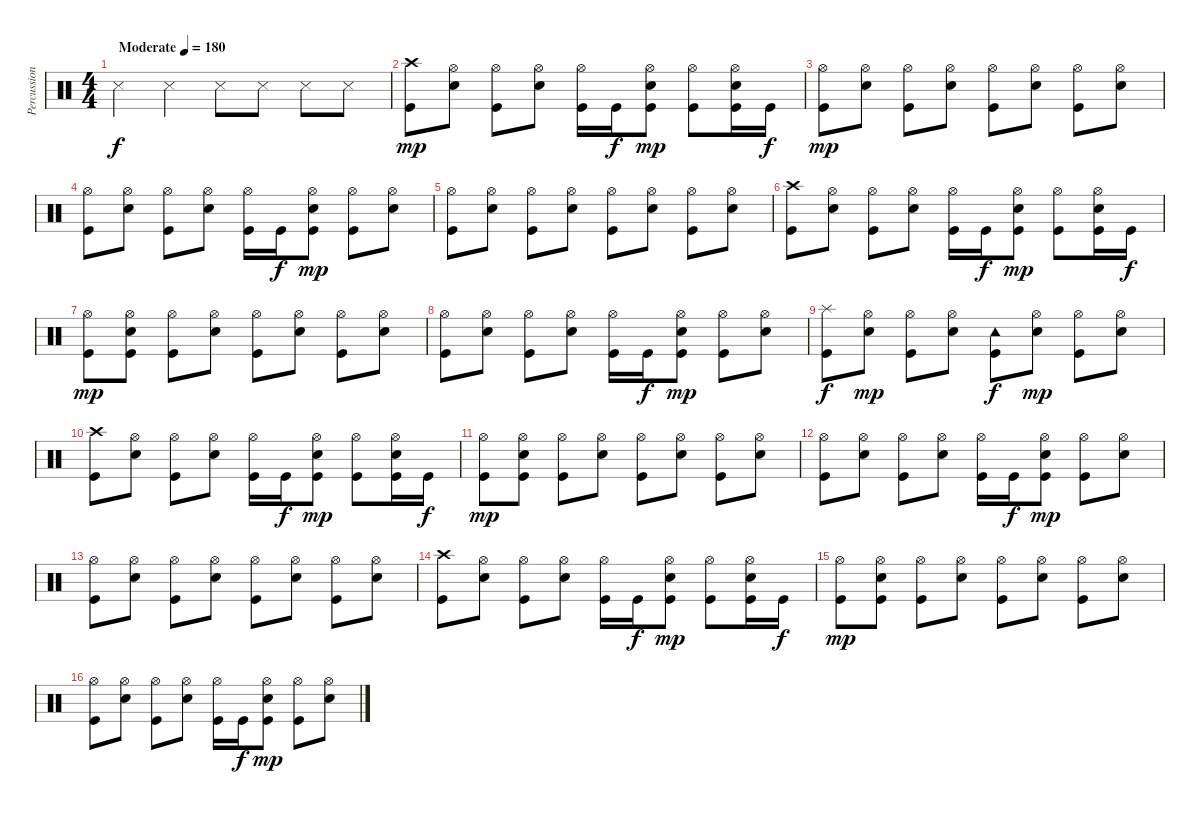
\track ("Percussion" "Percussion") {instrument percussion}
\staff {score}
\articulation defaults
\ts (4 4)
\tempo (180 "Moderate")
\clef neutral
\ks c "Metronome (hit)".4{dy f} "Metronome (hit)".4 "Metronome (hit)".8 "Metronome (hit)".8 "Metronome (hit)".8 "Metronome (hit)".8
|
("Crash high (hit)" "Kick (hit)").8{dy mp} ("Hi-Hat (open)" "Electric Snare (hit)").8 ("Hi-Hat (open)" "Kick (hit)").8 ("Hi-Hat (open)" "Electric Snare (hit)").8 ("Hi-Hat (open)" "Kick (hit)").16 "Kick (hit)".16{dy f} ("Hi-Hat (open)" "Electric Snare (hit)" "Kick (hit)").8{dy mp} ("Hi-Hat (open)" "Kick (hit)").8 ("Hi-Hat (open)" "Electric Snare (hit)" "Kick (hit)").16 "Kick (hit)".16{dy f} |
("Hi-Hat (open)" "Kick (hit)").8{dy mp} ("Hi-Hat (open)" "Electric Snare (hit)").8 ("Hi-Hat (open)" "Kick (hit)").8 ("Hi-Hat (open)" "Electric Snare (hit)").8 ("Hi-Hat (open)" "Kick (hit)").8 ("Hi-Hat (open)" "Electric Snare (hit)").8 ("Hi-Hat (open)" "Kick (hit)").8 ("Hi-Hat (open)" "Electric Snare (hit)").8 |
("Hi-Hat (open)" "Kick (hit)").8 ("Hi-Hat (open)" "Electric Snare (hit)").8 ("Hi-Hat (open)" "Kick (hit)").8 ("Hi-Hat (open)" "Electric Snare (hit)").8 ("Hi-Hat (open)" "Kick (hit)").16 "Kick (hit)".16{dy f} ("Hi-Hat (open)" "Electric Snare (hit)" "Kick (hit)").8{dy mp} ("Hi-Hat (open)" "Kick (hit)").8 ("Hi-Hat (open)" "Electric Snare (hit)").8 |
("Hi-Hat (open)" "Kick (hit)").8 ("Hi-Hat (open)" "Electric Snare (hit)").8 ("Hi-Hat (open)" "Kick (hit)").8 ("Hi-Hat (open)" "Electric Snare (hit)").8 ("Hi-Hat (open)" "Kick (hit)").8 ("Hi-Hat (open)" "Electric Snare (hit)").8 ("Hi-Hat (open)" "Kick (hit)").8 ("Hi-Hat (open)" "Electric Snare (hit)").8 |
("Crash high (hit)" "Kick (hit)").8 ("Hi-Hat (open)" "Electric Snare (hit)").8 ("Hi-Hat (open)" "Kick (hit)").8 ("Hi-Hat (open)" "Electric Snare (hit)").8 ("Hi-Hat (open)" "Kick (hit)").16 "Kick (hit)".16{dy f} ("Hi-Hat (open)" "Electric Snare (hit)" "Kick (hit)").8{dy mp} ("Hi-Hat (open)" "Kick (hit)").8 ("Hi-Hat (open)" "Electric Snare (hit)" "Kick (hit)").16 "Kick (hit)".16{dy f} |
("Hi-Hat (open)" "Kick (hit)").8{dy mp} ("Hi-Hat (open)" "Electric Snare (hit)" "Kick (hit)").8 ("Hi-Hat (open)" "Kick (hit)").8 ("Hi-Hat (open)" "Electric Snare (hit)").8 ("Hi-Hat (open)" "Kick (hit)").8 ("Hi-Hat (open)" "Electric Snare (hit)").8 ("Hi-Hat (open)" "Kick (hit)").8 ("Hi-Hat (open)" "Electric Snare (hit)").8 |
("Hi-Hat (open)" "Kick (hit)").8 ("Hi-Hat (open)" "Electric Snare (hit)").8 ("Hi-Hat (open)" "Kick (hit)").8 ("Hi-Hat (open)" "Electric Snare (hit)").8 ("Hi-Hat (open)" "Kick (hit)").16 "Kick (hit)".16{dy f} ("Hi-Hat (open)" "Electric Snare (hit)" "Kick (hit)").8{dy mp} ("Hi-Hat (open)" "Kick (hit)").8 ("Hi-Hat (open)" "Electric Snare (hit)").8 |
("Splash (hit)" "Kick (hit)").8{dy f} ("Hi-Hat (open)" "Electric Snare (hit)").8{dy mp} ("Hi-Hat (open)" "Kick (hit)").8 ("Hi-Hat (open)" "Electric Snare (hit)").8 ("Tambourine (hit)" "Kick (hit)").8{dy f} ("Hi-Hat (open)" "Electric Snare (hit)").8{dy mp} ("Hi-Hat (open)" "Kick (hit)").8 ("Hi-Hat (open)" "Electric Snare (hit)").8 |
("Crash high (hit)" "Kick (hit)").8 ("Hi-Hat (open)" "Electric Snare (hit)").8 ("Hi-Hat (open)" "Kick (hit)").8 ("Hi-Hat (open)" "Electric Snare (hit)").8 ("Hi-Hat (open)" "Kick (hit)").16 "Kick (hit)".16{dy f} ("Hi-Hat (open)" "Electric Snare (hit)" "Kick (hit)").8{dy mp} ("Hi-Hat (open)" "Kick (hit)").8 ("Hi-Hat (open)" "Electric Snare (hit)" "Kick (hit)").16 "Kick (hit)".16{dy f} |
("Hi-Hat (open)" "Kick (hit)").8{dy mp} ("Hi-Hat (open)" "Electric Snare (hit)" "Kick (hit)").8 ("Hi-Hat (open)" "Kick (hit)").8 ("Hi-Hat (open)" "Electric Snare (hit)").8 ("Hi-Hat (open)" "Kick (hit)").8 ("Hi-Hat (open)" "Electric Snare (hit)").8 ("Hi-Hat (open)" "Kick (hit)").8 ("Hi-Hat (open)" "Electric Snare (hit)").8 |
("Hi-Hat (open)" "Kick (hit)").8 ("Hi-Hat (open)" "Electric Snare (hit)").8 ("Hi-Hat (open)" "Kick (hit)").8 ("Hi-Hat (open)" "Electric Snare (hit)").8 ("Hi-Hat (open)" "Kick (hit)").16 "Kick (hit)".16{dy f} ("Hi-Hat (open)" "Electric Snare (hit)" "Kick (hit)").8{dy mp} ("Hi-Hat (open)" "Kick (hit)").8 ("Hi-Hat (open)" "Electric Snare (hit)").8 |
("Hi-Hat (open)" "Kick (hit)").8 ("Hi-Hat (open)" "Electric Snare (hit)").8 ("Hi-Hat (open)" "Kick (hit)").8 ("Hi-Hat (open)" "Electric Snare (hit)").8 ("Hi-Hat (open)" "Kick (hit)").8 ("Hi-Hat (open)" "Electric Snare (hit)").8 ("Hi-Hat (open)" "Kick (hit)").8 ("Hi-Hat (open)" "Electric Snare (hit)").8 |
("Crash high (hit)" "Kick (hit)").8 ("Hi-Hat (open)" "Electric Snare (hit)").8 ("Hi-Hat (open)" "Kick (hit)").8 ("Hi-Hat (open)" "Electric Snare (hit)").8 ("Hi-Hat (open)" "Kick (hit)").16 "Kick (hit)".16{dy f} ("Hi-Hat (open)" "Electric Snare (hit)" "Kick (hit)").8{dy mp} ("Hi-Hat (open)" "Kick (hit)").8 ("Hi-Hat (open)" "Electric Snare (hit)" "Kick (hit)").16 "Kick (hit)".16{dy f} |
("Hi-Hat (open)" "Kick (hit)").8{dy mp} ("Hi-Hat (open)" "Electric Snare (hit)" "Kick (hit)").8 ("Hi-Hat (open)" "Kick (hit)").8 ("Hi-Hat (open)" "Electric Snare (hit)").8 ("Hi-Hat (open)" "Kick (hit)").8 ("Hi-Hat (open)" "Electric Snare (hit)").8 ("Hi-Hat (open)" "Kick (hit)").8 ("Hi-Hat (open)" "Electric Snare (hit)").8 |
("Hi-Hat (open)" "Kick (hit)").8 ("Hi-Hat (open)" "Electric Snare (hit)").8 ("Hi-Hat (open)" "Kick (hit)").8 ("Hi-Hat (open)" "Electric Snare (hit)").8 ("Hi-Hat (open)" "Kick (hit)").16 "Kick (hit)".16{dy f} ("Hi-Hat (open)" "Electric Snare (hit)" "Kick (hit)").8{dy mp} ("Hi-Hat (open)" "Kick (hit)").8 ("Hi-Hat (open)" "Electric Snare (hit)").8
